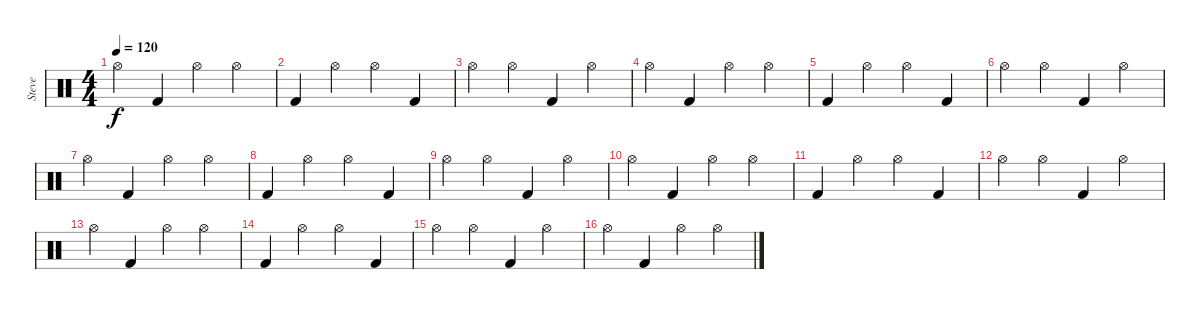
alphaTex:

\track ("Steve" "Steve") {instrument percussion}
\staff {score}
\articulation defaults
\ts (4 4)
\tempo 120
\clef neutral
\ks c "Hi-Hat (open)".4{dy f} "Kick (hit) 2".4 "Hi-Hat (open)".4 "Hi-Hat (open)".4
|
"Kick (hit) 2".4 "Hi-Hat (open)".4 "Hi-Hat (open)".4 "Kick (hit) 2".4 |
"Hi-Hat (open)".4 "Hi-Hat (open)".4 "Kick (hit) 2".4 "Hi-Hat (open)".4 |
"Hi-Hat (open)".4 "Kick (hit) 2".4 "Hi-Hat (open)".4 "Hi-Hat (open)".4 |
"Kick (hit) 2".4 "Hi-Hat (open)".4 "Hi-Hat (open)".4 "Kick (hit) 2".4 |
"Hi-Hat (open)".4 "Hi-Hat (open)".4 "Kick (hit) 2".4 "Hi-Hat (open)".4 |
"Hi-Hat (open)".4 "Kick (hit) 2".4 "Hi-Hat (open)".4 "Hi-Hat (open)".4 |
"Kick (hit) 2".4 "Hi-Hat (open)".4 "Hi-Hat (open)".4 "Kick (hit) 2".4 |
"Hi-Hat (open)".4 "Hi-Hat (open)".4 "Kick (hit) 2".4 "Hi-Hat (open)".4 |
"Hi-Hat (open)".4 "Kick (hit) 2".4 "Hi-Hat (open)".4 "Hi-Hat (open)".4 |
"Kick (hit) 2".4 "Hi-Hat (open)".4 "Hi-Hat (open)".4 "Kick (hit) 2".4 |
"Hi-Hat (open)".4 "Hi-Hat (open)".4 "Kick (hit) 2".4 "Hi-Hat (open)".4 |
"Hi-Hat (open)".4 "Kick (hit) 2".4 "Hi-Hat (open)".4 "Hi-Hat (open)".4 |
"Kick (hit) 2".4 "Hi-Hat (open)".4 "Hi-Hat (open)".4 "Kick (hit) 2".4 |
"Hi-Hat (open)".4 "Hi-Hat (open)".4 "Kick (hit) 2".4 "Hi-Hat (open)".4 |
"Hi-Hat (open)".4 "Kick (hit) 2".4 "Hi-Hat (open)".4 "Hi-Hat (open)".4
